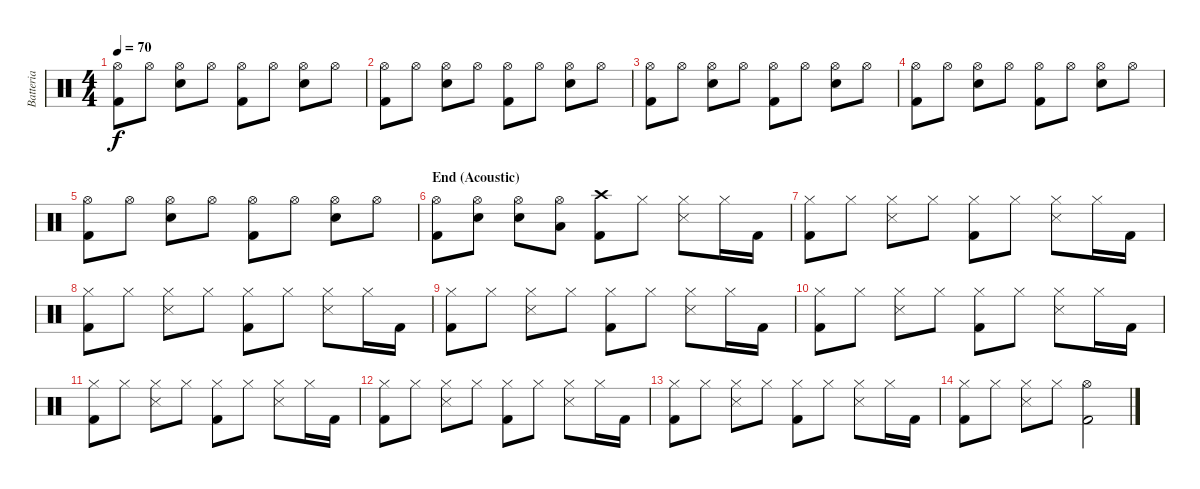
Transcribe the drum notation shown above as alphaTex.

\track ("Batteria" "Batteria") {instrument percussion}
\staff {score}
\articulation defaults
\ts (4 4)
\tempo 70
\clef neutral
\ks c
("Kick (hit) 2" "Hi-Hat (open)").8{dy f} "Hi-Hat (open)".8 ("Electric Snare (hit)" "Hi-Hat (open)").8 "Hi-Hat (open)".8 ("Kick (hit) 2" "Hi-Hat (open)").8 "Hi-Hat (open)".8 ("Electric Snare (hit)" "Hi-Hat (open)").8 "Hi-Hat (open)".8 |
("Kick (hit) 2" "Hi-Hat (open)").8 "Hi-Hat (open)".8 ("Electric Snare (hit)" "Hi-Hat (open)").8 "Hi-Hat (open)".8 ("Kick (hit) 2" "Hi-Hat (open)").8 "Hi-Hat (open)".8 ("Electric Snare (hit)" "Hi-Hat (open)").8 "Hi-Hat (open)".8 |
("Kick (hit) 2" "Hi-Hat (open)").8 "Hi-Hat (open)".8 ("Electric Snare (hit)" "Hi-Hat (open)").8 "Hi-Hat (open)".8 ("Kick (hit) 2" "Hi-Hat (open)").8 "Hi-Hat (open)".8 ("Electric Snare (hit)" "Hi-Hat (open)").8 "Hi-Hat (open)".8 |
("Kick (hit) 2" "Hi-Hat (open)").8 "Hi-Hat (open)".8 ("Electric Snare (hit)" "Hi-Hat (open)").8 "Hi-Hat (open)".8 ("Kick (hit) 2" "Hi-Hat (open)").8 "Hi-Hat (open)".8 ("Electric Snare (hit)" "Hi-Hat (open)").8 "Hi-Hat (open)".8 |
("Kick (hit) 2" "Hi-Hat (open)").8 "Hi-Hat (open)".8 ("Electric Snare (hit)" "Hi-Hat (open)").8 "Hi-Hat (open)".8 ("Kick (hit) 2" "Hi-Hat (open)").8 "Hi-Hat (open)".8 ("Electric Snare (hit)" "Hi-Hat (open)").8 "Hi-Hat (open)".8 |
\section ("" "End (Acoustic)")
("Kick (hit) 2" "Hi-Hat (open)").8 ("Electric Snare (hit)" "Hi-Hat (open)").8 ("Electric Snare (hit)" "Hi-Hat (open)").8 ("Low Tom (hit)" "Hi-Hat (open)").8 ("Kick (hit) 2" "Crash high (hit)").8 "Hi-Hat (closed)".8 ("Snare (side stick) 3" "Hi-Hat (closed)").8 "Hi-Hat (closed)".16 "Kick (hit) 2".16 |
("Kick (hit) 2" "Hi-Hat (closed)").8 "Hi-Hat (closed)".8 ("Snare (side stick) 3" "Hi-Hat (closed)").8 "Hi-Hat (closed)".8 ("Kick (hit) 2" "Hi-Hat (closed)").8 "Hi-Hat (closed)".8 ("Snare (side stick) 3" "Hi-Hat (closed)").8 "Hi-Hat (closed)".16 "Kick (hit) 2".16 |
("Kick (hit) 2" "Hi-Hat (closed)").8 "Hi-Hat (closed)".8 ("Snare (side stick) 3" "Hi-Hat (closed)").8 "Hi-Hat (closed)".8 ("Kick (hit) 2" "Hi-Hat (closed)").8 "Hi-Hat (closed)".8 ("Snare (side stick) 3" "Hi-Hat (closed)").8 "Hi-Hat (closed)".16 "Kick (hit) 2".16 |
("Kick (hit) 2" "Hi-Hat (closed)").8 "Hi-Hat (closed)".8 ("Snare (side stick) 3" "Hi-Hat (closed)").8 "Hi-Hat (closed)".8 ("Kick (hit) 2" "Hi-Hat (closed)").8 "Hi-Hat (closed)".8 ("Snare (side stick) 3" "Hi-Hat (closed)").8 "Hi-Hat (closed)".16 "Kick (hit) 2".16 |
("Kick (hit) 2" "Hi-Hat (closed)").8 "Hi-Hat (closed)".8 ("Snare (side stick) 3" "Hi-Hat (closed)").8 "Hi-Hat (closed)".8 ("Kick (hit) 2" "Hi-Hat (closed)").8 "Hi-Hat (closed)".8 ("Snare (side stick) 3" "Hi-Hat (closed)").8 "Hi-Hat (closed)".16 "Kick (hit) 2".16 |
("Kick (hit) 2" "Hi-Hat (closed)").8 "Hi-Hat (closed)".8 ("Snare (side stick) 3" "Hi-Hat (closed)").8 "Hi-Hat (closed)".8 ("Kick (hit) 2" "Hi-Hat (closed)").8 "Hi-Hat (closed)".8 ("Snare (side stick) 3" "Hi-Hat (closed)").8 "Hi-Hat (closed)".16 "Kick (hit) 2".16 |
("Kick (hit) 2" "Hi-Hat (closed)").8 "Hi-Hat (closed)".8 ("Snare (side stick) 3" "Hi-Hat (closed)").8 "Hi-Hat (closed)".8 ("Kick (hit) 2" "Hi-Hat (closed)").8 "Hi-Hat (closed)".8 ("Snare (side stick) 3" "Hi-Hat (closed)").8 "Hi-Hat (closed)".16 "Kick (hit) 2".16 |
("Kick (hit) 2" "Hi-Hat (closed)").8 "Hi-Hat (closed)".8 ("Snare (side stick) 3" "Hi-Hat (closed)").8 "Hi-Hat (closed)".8 ("Kick (hit) 2" "Hi-Hat (closed)").8 "Hi-Hat (closed)".8 ("Snare (side stick) 3" "Hi-Hat (closed)").8 "Hi-Hat (closed)".16 "Kick (hit) 2".16 |
("Kick (hit) 2" "Hi-Hat (closed)").8 "Hi-Hat (closed)".8 ("Snare (side stick) 3" "Hi-Hat (closed)").8 "Hi-Hat (closed)".8 ("Kick (hit) 2" "Hi-Hat (open)").2
